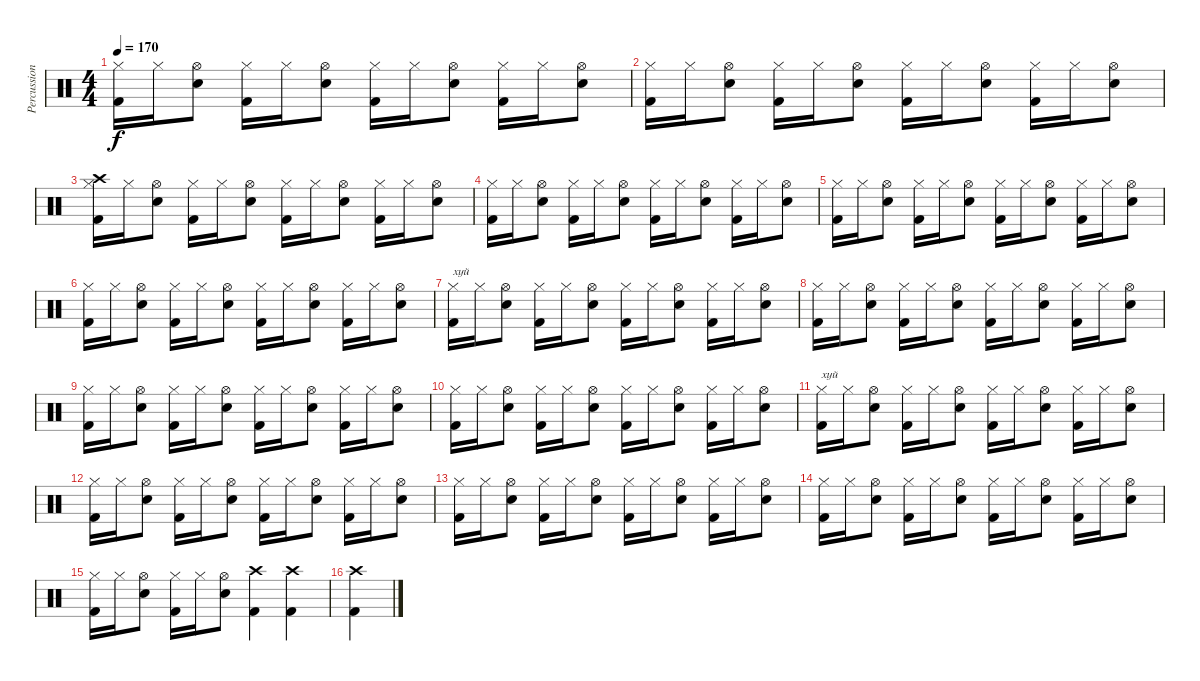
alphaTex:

\track ("Percussion" "Percussion") {instrument percussion}
\staff {score}
\articulation defaults
\ts (4 4)
\tempo 170
\clef neutral
\ks c
("Hi-Hat (closed)" "Kick (hit) 2").16{dy f} "Hi-Hat (closed)".16 ("Hi-Hat (open)" "Snare (hit) 2").8 ("Hi-Hat (closed)" "Kick (hit) 2").16 "Hi-Hat (closed)".16 ("Hi-Hat (open)" "Snare (hit) 2").8 ("Hi-Hat (closed)" "Kick (hit) 2").16 "Hi-Hat (closed)".16 ("Hi-Hat (open)" "Snare (hit) 2").8 ("Hi-Hat (closed)" "Kick (hit) 2").16 "Hi-Hat (closed)".16 ("Hi-Hat (open)" "Snare (hit) 2").8 |
("Hi-Hat (closed)" "Kick (hit) 2").16 "Hi-Hat (closed)".16 ("Hi-Hat (open)" "Snare (hit) 2").8 ("Hi-Hat (closed)" "Kick (hit) 2").16 "Hi-Hat (closed)".16 ("Hi-Hat (open)" "Snare (hit) 2").8 ("Hi-Hat (closed)" "Kick (hit) 2").16 "Hi-Hat (closed)".16 ("Hi-Hat (open)" "Snare (hit) 2").8 ("Hi-Hat (closed)" "Kick (hit) 2").16 "Hi-Hat (closed)".16 ("Hi-Hat (open)" "Snare (hit) 2").8 |
("Hi-Hat (closed)" "Kick (hit) 2" "Crash high (hit)").16 "Hi-Hat (closed)".16 ("Hi-Hat (open)" "Snare (hit) 2").8 ("Hi-Hat (closed)" "Kick (hit) 2").16 "Hi-Hat (closed)".16 ("Hi-Hat (open)" "Snare (hit) 2").8 ("Hi-Hat (closed)" "Kick (hit) 2").16 "Hi-Hat (closed)".16 ("Hi-Hat (open)" "Snare (hit) 2").8 ("Hi-Hat (closed)" "Kick (hit) 2").16 "Hi-Hat (closed)".16 ("Hi-Hat (open)" "Snare (hit) 2").8 |
("Hi-Hat (closed)" "Kick (hit) 2").16 "Hi-Hat (closed)".16 ("Hi-Hat (open)" "Snare (hit) 2").8 ("Hi-Hat (closed)" "Kick (hit) 2").16 "Hi-Hat (closed)".16 ("Hi-Hat (open)" "Snare (hit) 2").8 ("Hi-Hat (closed)" "Kick (hit) 2").16 "Hi-Hat (closed)".16 ("Hi-Hat (open)" "Snare (hit) 2").8 ("Hi-Hat (closed)" "Kick (hit) 2").16 "Hi-Hat (closed)".16 ("Hi-Hat (open)" "Snare (hit) 2").8 |
("Hi-Hat (closed)" "Kick (hit) 2").16 "Hi-Hat (closed)".16 ("Hi-Hat (open)" "Snare (hit) 2").8 ("Hi-Hat (closed)" "Kick (hit) 2").16 "Hi-Hat (closed)".16 ("Hi-Hat (open)" "Snare (hit) 2").8 ("Hi-Hat (closed)" "Kick (hit) 2").16 "Hi-Hat (closed)".16 ("Hi-Hat (open)" "Snare (hit) 2").8 ("Hi-Hat (closed)" "Kick (hit) 2").16 "Hi-Hat (closed)".16 ("Hi-Hat (open)" "Snare (hit) 2").8 |
("Hi-Hat (closed)" "Kick (hit) 2").16 "Hi-Hat (closed)".16 ("Hi-Hat (open)" "Snare (hit) 2").8 ("Hi-Hat (closed)" "Kick (hit) 2").16 "Hi-Hat (closed)".16 ("Hi-Hat (open)" "Snare (hit) 2").8 ("Hi-Hat (closed)" "Kick (hit) 2").16 "Hi-Hat (closed)".16 ("Hi-Hat (open)" "Snare (hit) 2").8 ("Hi-Hat (closed)" "Kick (hit) 2").16 "Hi-Hat (closed)".16 ("Hi-Hat (open)" "Snare (hit) 2").8 |
("Hi-Hat (closed)" "Kick (hit) 2").16{txt "хуй"} "Hi-Hat (closed)".16 ("Hi-Hat (open)" "Snare (hit) 2").8 ("Hi-Hat (closed)" "Kick (hit) 2").16 "Hi-Hat (closed)".16 ("Hi-Hat (open)" "Snare (hit) 2").8 ("Hi-Hat (closed)" "Kick (hit) 2").16 "Hi-Hat (closed)".16 ("Hi-Hat (open)" "Snare (hit) 2").8 ("Hi-Hat (closed)" "Kick (hit) 2").16 "Hi-Hat (closed)".16 ("Hi-Hat (open)" "Snare (hit) 2").8 |
("Hi-Hat (closed)" "Kick (hit) 2").16 "Hi-Hat (closed)".16 ("Hi-Hat (open)" "Snare (hit) 2").8 ("Hi-Hat (closed)" "Kick (hit) 2").16 "Hi-Hat (closed)".16 ("Hi-Hat (open)" "Snare (hit) 2").8 ("Hi-Hat (closed)" "Kick (hit) 2").16 "Hi-Hat (closed)".16 ("Hi-Hat (open)" "Snare (hit) 2").8 ("Hi-Hat (closed)" "Kick (hit) 2").16 "Hi-Hat (closed)".16 ("Hi-Hat (open)" "Snare (hit) 2").8 |
("Hi-Hat (closed)" "Kick (hit) 2").16 "Hi-Hat (closed)".16 ("Hi-Hat (open)" "Snare (hit) 2").8 ("Hi-Hat (closed)" "Kick (hit) 2").16 "Hi-Hat (closed)".16 ("Hi-Hat (open)" "Snare (hit) 2").8 ("Hi-Hat (closed)" "Kick (hit) 2").16 "Hi-Hat (closed)".16 ("Hi-Hat (open)" "Snare (hit) 2").8 ("Hi-Hat (closed)" "Kick (hit) 2").16 "Hi-Hat (closed)".16 ("Hi-Hat (open)" "Snare (hit) 2").8 |
("Hi-Hat (closed)" "Kick (hit) 2").16 "Hi-Hat (closed)".16 ("Hi-Hat (open)" "Snare (hit) 2").8 ("Hi-Hat (closed)" "Kick (hit) 2").16 "Hi-Hat (closed)".16 ("Hi-Hat (open)" "Snare (hit) 2").8 ("Hi-Hat (closed)" "Kick (hit) 2").16 "Hi-Hat (closed)".16 ("Hi-Hat (open)" "Snare (hit) 2").8 ("Hi-Hat (closed)" "Kick (hit) 2").16 "Hi-Hat (closed)".16 ("Hi-Hat (open)" "Snare (hit) 2").8 |
("Hi-Hat (closed)" "Kick (hit) 2").16{txt "хуй"} "Hi-Hat (closed)".16 ("Hi-Hat (open)" "Snare (hit) 2").8 ("Hi-Hat (closed)" "Kick (hit) 2").16 "Hi-Hat (closed)".16 ("Hi-Hat (open)" "Snare (hit) 2").8 ("Hi-Hat (closed)" "Kick (hit) 2").16 "Hi-Hat (closed)".16 ("Hi-Hat (open)" "Snare (hit) 2").8 ("Hi-Hat (closed)" "Kick (hit) 2").16 "Hi-Hat (closed)".16 ("Hi-Hat (open)" "Snare (hit) 2").8 |
("Hi-Hat (closed)" "Kick (hit) 2").16 "Hi-Hat (closed)".16 ("Hi-Hat (open)" "Snare (hit) 2").8 ("Hi-Hat (closed)" "Kick (hit) 2").16 "Hi-Hat (closed)".16 ("Hi-Hat (open)" "Snare (hit) 2").8 ("Hi-Hat (closed)" "Kick (hit) 2").16 "Hi-Hat (closed)".16 ("Hi-Hat (open)" "Snare (hit) 2").8 ("Hi-Hat (closed)" "Kick (hit) 2").16 "Hi-Hat (closed)".16 ("Hi-Hat (open)" "Snare (hit) 2").8 |
("Hi-Hat (closed)" "Kick (hit) 2").16 "Hi-Hat (closed)".16 ("Hi-Hat (open)" "Snare (hit) 2").8 ("Hi-Hat (closed)" "Kick (hit) 2").16 "Hi-Hat (closed)".16 ("Hi-Hat (open)" "Snare (hit) 2").8 ("Hi-Hat (closed)" "Kick (hit) 2").16 "Hi-Hat (closed)".16 ("Hi-Hat (open)" "Snare (hit) 2").8 ("Hi-Hat (closed)" "Kick (hit) 2").16 "Hi-Hat (closed)".16 ("Hi-Hat (open)" "Snare (hit) 2").8 |
("Hi-Hat (closed)" "Kick (hit) 2").16 "Hi-Hat (closed)".16 ("Hi-Hat (open)" "Snare (hit) 2").8 ("Hi-Hat (closed)" "Kick (hit) 2").16 "Hi-Hat (closed)".16 ("Hi-Hat (open)" "Snare (hit) 2").8 ("Hi-Hat (closed)" "Kick (hit) 2").16 "Hi-Hat (closed)".16 ("Hi-Hat (open)" "Snare (hit) 2").8 ("Hi-Hat (closed)" "Kick (hit) 2").16 "Hi-Hat (closed)".16 ("Hi-Hat (open)" "Snare (hit) 2").8 |
("Hi-Hat (closed)" "Kick (hit) 2").16 "Hi-Hat (closed)".16 ("Hi-Hat (open)" "Snare (hit) 2").8 ("Hi-Hat (closed)" "Kick (hit) 2").16 "Hi-Hat (closed)".16 ("Hi-Hat (open)" "Snare (hit) 2").8 ("Kick (hit) 2" "Crash high (hit)").4 ("Kick (hit) 2" "Crash high (hit)").4 |
("Crash high (hit)" "Kick (hit) 2").4
